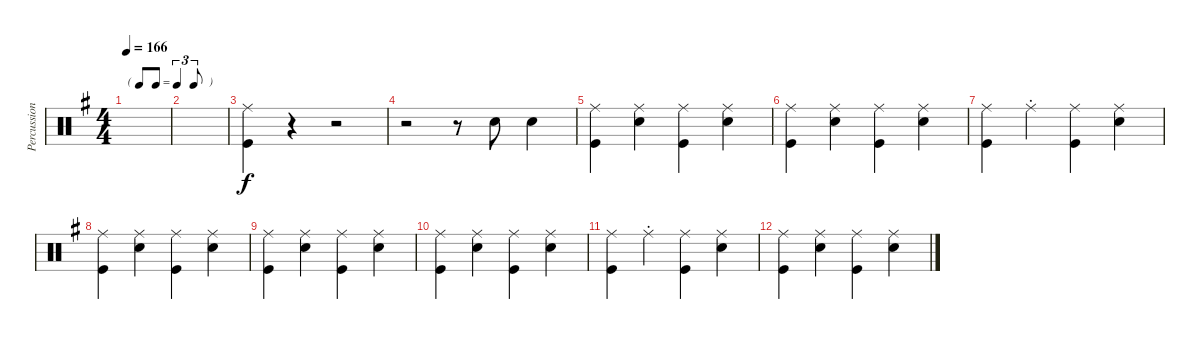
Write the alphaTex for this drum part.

\track ("Percussion" "Percussion") {instrument percussion}
\staff {score}
\articulation defaults
\ts (4 4)
\tf triplet8th
\tempo 166
\clef neutral
\ks g
|
|
("Ride (middle)" "Kick (hit)").4 r.4 r.2 |
r.2 r.8 "Snare (hit) 2".8 "Snare (hit) 2".4 |
("Ride (middle)" "Kick (hit)").4 ("Ride (middle)" "Snare (hit) 2").4 ("Ride (middle)" "Kick (hit)").4 ("Ride (middle)" "Snare (hit) 2").4 |
("Ride (middle)" "Kick (hit)").4 ("Ride (middle)" "Snare (hit) 2").4 ("Ride (middle)" "Kick (hit)").4 ("Ride (middle)" "Snare (hit) 2").4 |
("Ride (middle)" "Kick (hit)").4 "Ride (middle)"{st}.4 ("Ride (middle)" "Kick (hit)").4 ("Ride (middle)" "Snare (hit) 2").4 |
("Ride (middle)" "Kick (hit)").4 ("Ride (middle)" "Snare (hit) 2").4 ("Ride (middle)" "Kick (hit)").4 ("Ride (middle)" "Snare (hit) 2").4 |
("Ride (middle)" "Kick (hit)").4 ("Ride (middle)" "Snare (hit) 2").4 ("Ride (middle)" "Kick (hit)").4 ("Ride (middle)" "Snare (hit) 2").4 |
("Ride (middle)" "Kick (hit)").4 ("Ride (middle)" "Snare (hit) 2").4 ("Ride (middle)" "Kick (hit)").4 ("Ride (middle)" "Snare (hit) 2").4 |
("Ride (middle)" "Kick (hit)").4 "Ride (middle)"{st}.4 ("Ride (middle)" "Kick (hit)").4 ("Ride (middle)" "Snare (hit) 2").4 |
("Ride (middle)" "Kick (hit)").4 ("Ride (middle)" "Snare (hit) 2").4 ("Ride (middle)" "Kick (hit)").4 ("Ride (middle)" "Snare (hit) 2").4
